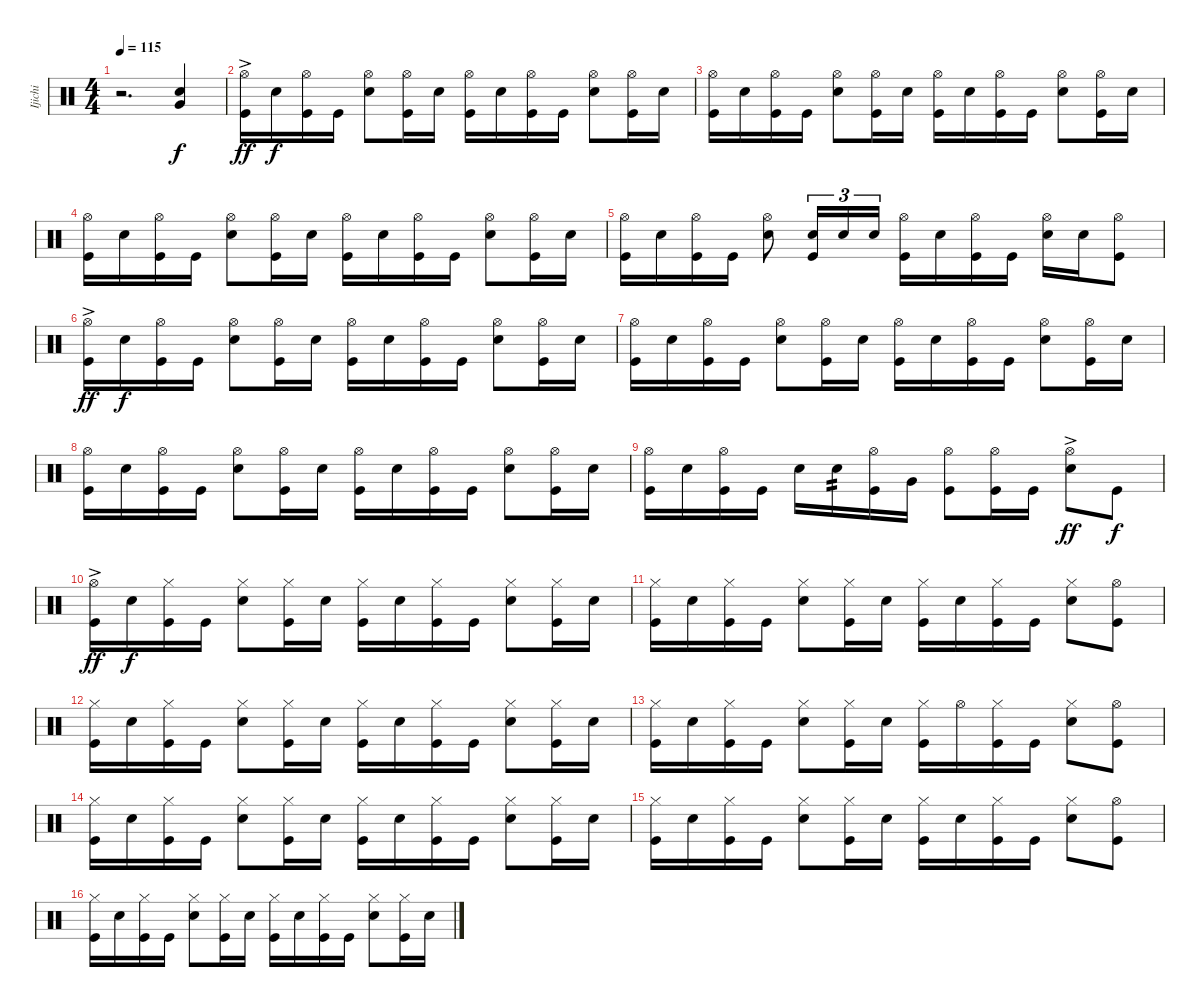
\track ("Ijichi" "Ijichi") {instrument percussion}
\staff {score}
\articulation defaults
\ts (4 4)
\tempo 115
\clef neutral
\ks c
r.2{d dy f} ("Snare (hit) 2" "Very Low Tom (hit)").4 |
("Hi-Hat (open)"{ac} "Kick (hit)").16{dy ff} "Snare (hit) 2".16{dy f} ("Hi-Hat (open)" "Kick (hit)").16 "Kick (hit)".16 ("Hi-Hat (open)" "Snare (hit) 2").8 ("Hi-Hat (open)" "Kick (hit)").16 "Snare (hit) 2".16 ("Hi-Hat (open)" "Kick (hit)").16 "Snare (hit) 2".16 ("Hi-Hat (open)" "Kick (hit)").16 "Kick (hit)".16 ("Hi-Hat (open)" "Snare (hit) 2").8 ("Hi-Hat (open)" "Kick (hit)").16 "Snare (hit) 2".16 |
("Hi-Hat (open)" "Kick (hit)").16 "Snare (hit) 2".16 ("Hi-Hat (open)" "Kick (hit)").16 "Kick (hit)".16 ("Hi-Hat (open)" "Snare (hit) 2").8 ("Hi-Hat (open)" "Kick (hit)").16 "Snare (hit) 2".16 ("Hi-Hat (open)" "Kick (hit)").16 "Snare (hit) 2".16 ("Hi-Hat (open)" "Kick (hit)").16 "Kick (hit)".16 ("Hi-Hat (open)" "Snare (hit) 2").8 ("Hi-Hat (open)" "Kick (hit)").16 "Snare (hit) 2".16 |
("Hi-Hat (open)" "Kick (hit)").16 "Snare (hit) 2".16 ("Hi-Hat (open)" "Kick (hit)").16 "Kick (hit)".16 ("Hi-Hat (open)" "Snare (hit) 2").8 ("Hi-Hat (open)" "Kick (hit)").16 "Snare (hit) 2".16 ("Hi-Hat (open)" "Kick (hit)").16 "Snare (hit) 2".16 ("Hi-Hat (open)" "Kick (hit)").16 "Kick (hit)".16 ("Hi-Hat (open)" "Snare (hit) 2").8 ("Hi-Hat (open)" "Kick (hit)").16 "Snare (hit) 2".16 |
("Hi-Hat (open)" "Kick (hit)").16 "Snare (hit) 2".16 ("Hi-Hat (open)" "Kick (hit)").16 "Kick (hit)".16 ("Hi-Hat (open)" "Snare (hit) 2").8 ("Snare (hit) 2" "Kick (hit)").16{tu (3 2)} "Snare (hit) 2".16{tu (3 2)} "Snare (hit) 2".16{tu (3 2)} ("Hi-Hat (open)" "Kick (hit)").16 "Snare (hit) 2".16 ("Hi-Hat (open)" "Kick (hit)").16 "Kick (hit)".16 ("Hi-Hat (open)" "Snare (hit) 2").16 "Snare (hit) 2".16 ("Hi-Hat (open)" "Kick (hit)").8 |
("Hi-Hat (open)"{ac} "Kick (hit)").16{dy ff} "Snare (hit) 2".16{dy f} ("Hi-Hat (open)" "Kick (hit)").16 "Kick (hit)".16 ("Hi-Hat (open)" "Snare (hit) 2").8 ("Hi-Hat (open)" "Kick (hit)").16 "Snare (hit) 2".16 ("Hi-Hat (open)" "Kick (hit)").16 "Snare (hit) 2".16 ("Hi-Hat (open)" "Kick (hit)").16 "Kick (hit)".16 ("Hi-Hat (open)" "Snare (hit) 2").8 ("Hi-Hat (open)" "Kick (hit)").16 "Snare (hit) 2".16 |
("Hi-Hat (open)" "Kick (hit)").16 "Snare (hit) 2".16 ("Hi-Hat (open)" "Kick (hit)").16 "Kick (hit)".16 ("Hi-Hat (open)" "Snare (hit) 2").8 ("Hi-Hat (open)" "Kick (hit)").16 "Snare (hit) 2".16 ("Hi-Hat (open)" "Kick (hit)").16 "Snare (hit) 2".16 ("Hi-Hat (open)" "Kick (hit)").16 "Kick (hit)".16 ("Hi-Hat (open)" "Snare (hit) 2").8 ("Hi-Hat (open)" "Kick (hit)").16 "Snare (hit) 2".16 |
("Hi-Hat (open)" "Kick (hit)").16 "Snare (hit) 2".16 ("Hi-Hat (open)" "Kick (hit)").16 "Kick (hit)".16 ("Hi-Hat (open)" "Snare (hit) 2").8 ("Hi-Hat (open)" "Kick (hit)").16 "Snare (hit) 2".16 ("Hi-Hat (open)" "Kick (hit)").16 "Snare (hit) 2".16 ("Hi-Hat (open)" "Kick (hit)").16 "Kick (hit)".16 ("Hi-Hat (open)" "Snare (hit) 2").8 ("Hi-Hat (open)" "Kick (hit)").16 "Snare (hit) 2".16 |
("Hi-Hat (open)" "Kick (hit)").16 "Snare (hit) 2".16 ("Hi-Hat (open)" "Kick (hit)").16 "Kick (hit)".16 "Snare (hit) 2".16 "Snare (hit) 2".16{tp 2} ("Hi-Hat (open)" "Kick (hit)").16 "Very Low Tom (hit)".16 ("Hi-Hat (open)" "Kick (hit)").8 ("Hi-Hat (open)" "Kick (hit)").16 "Kick (hit)".16 ("Hi-Hat (open)"{ac} "Snare (hit) 2").8{dy ff} "Kick (hit)".8{dy f} |
("Hi-Hat (open)"{ac} "Kick (hit)").16{dy ff} "Snare (hit) 2".16{dy f} ("Hi-Hat (closed)" "Kick (hit)").16 "Kick (hit)".16 ("Hi-Hat (closed)" "Snare (hit) 2").8 ("Hi-Hat (closed)" "Kick (hit)").16 "Snare (hit) 2".16 ("Hi-Hat (closed)" "Kick (hit)").16 "Snare (hit) 2".16 ("Hi-Hat (closed)" "Kick (hit)").16 "Kick (hit)".16 ("Hi-Hat (closed)" "Snare (hit) 2").8 ("Hi-Hat (closed)" "Kick (hit)").16 "Snare (hit) 2".16 |
("Hi-Hat (closed)" "Kick (hit)").16 "Snare (hit) 2".16 ("Hi-Hat (closed)" "Kick (hit)").16 "Kick (hit)".16 ("Hi-Hat (closed)" "Snare (hit) 2").8 ("Hi-Hat (closed)" "Kick (hit)").16 "Snare (hit) 2".16 ("Hi-Hat (closed)" "Kick (hit)").16 "Snare (hit) 2".16 ("Hi-Hat (closed)" "Kick (hit)").16 "Kick (hit)".16 ("Hi-Hat (closed)" "Snare (hit) 2").8 ("Hi-Hat (open)" "Kick (hit)").8 |
("Hi-Hat (closed)" "Kick (hit)").16 "Snare (hit) 2".16 ("Hi-Hat (closed)" "Kick (hit)").16 "Kick (hit)".16 ("Hi-Hat (closed)" "Snare (hit) 2").8 ("Hi-Hat (closed)" "Kick (hit)").16 "Snare (hit) 2".16 ("Hi-Hat (closed)" "Kick (hit)").16 "Snare (hit) 2".16 ("Hi-Hat (closed)" "Kick (hit)").16 "Kick (hit)".16 ("Hi-Hat (closed)" "Snare (hit) 2").8 ("Hi-Hat (closed)" "Kick (hit)").16 "Snare (hit) 2".16 |
("Hi-Hat (closed)" "Kick (hit)").16 "Snare (hit) 2".16 ("Hi-Hat (closed)" "Kick (hit)").16 "Kick (hit)".16 ("Hi-Hat (closed)" "Snare (hit) 2").8 ("Hi-Hat (closed)" "Kick (hit)").16 "Snare (hit) 2".16 ("Hi-Hat (closed)" "Kick (hit)").16 "Hi-Hat (open)".16 ("Hi-Hat (closed)" "Kick (hit)").16 "Kick (hit)".16 ("Hi-Hat (closed)" "Snare (hit) 2").8 ("Hi-Hat (open)" "Kick (hit)").8 |
("Hi-Hat (closed)" "Kick (hit)").16 "Snare (hit) 2".16 ("Hi-Hat (closed)" "Kick (hit)").16 "Kick (hit)".16 ("Hi-Hat (closed)" "Snare (hit) 2").8 ("Hi-Hat (closed)" "Kick (hit)").16 "Snare (hit) 2".16 ("Hi-Hat (closed)" "Kick (hit)").16 "Snare (hit) 2".16 ("Hi-Hat (closed)" "Kick (hit)").16 "Kick (hit)".16 ("Hi-Hat (closed)" "Snare (hit) 2").8 ("Hi-Hat (closed)" "Kick (hit)").16 "Snare (hit) 2".16 |
("Hi-Hat (closed)" "Kick (hit)").16 "Snare (hit) 2".16 ("Hi-Hat (closed)" "Kick (hit)").16 "Kick (hit)".16 ("Hi-Hat (closed)" "Snare (hit) 2").8 ("Hi-Hat (closed)" "Kick (hit)").16 "Snare (hit) 2".16 ("Hi-Hat (closed)" "Kick (hit)").16 "Snare (hit) 2".16 ("Hi-Hat (closed)" "Kick (hit)").16 "Kick (hit)".16 ("Hi-Hat (closed)" "Snare (hit) 2").8 ("Hi-Hat (open)" "Kick (hit)").8 |
("Hi-Hat (closed)" "Kick (hit)").16 "Snare (hit) 2".16 ("Hi-Hat (closed)" "Kick (hit)").16 "Kick (hit)".16 ("Hi-Hat (closed)" "Snare (hit) 2").8 ("Hi-Hat (closed)" "Kick (hit)").16 "Snare (hit) 2".16 ("Hi-Hat (closed)" "Kick (hit)").16 "Snare (hit) 2".16 ("Hi-Hat (closed)" "Kick (hit)").16 "Kick (hit)".16 ("Hi-Hat (closed)" "Snare (hit) 2").8 ("Hi-Hat (closed)" "Kick (hit)").16 "Snare (hit) 2".16
